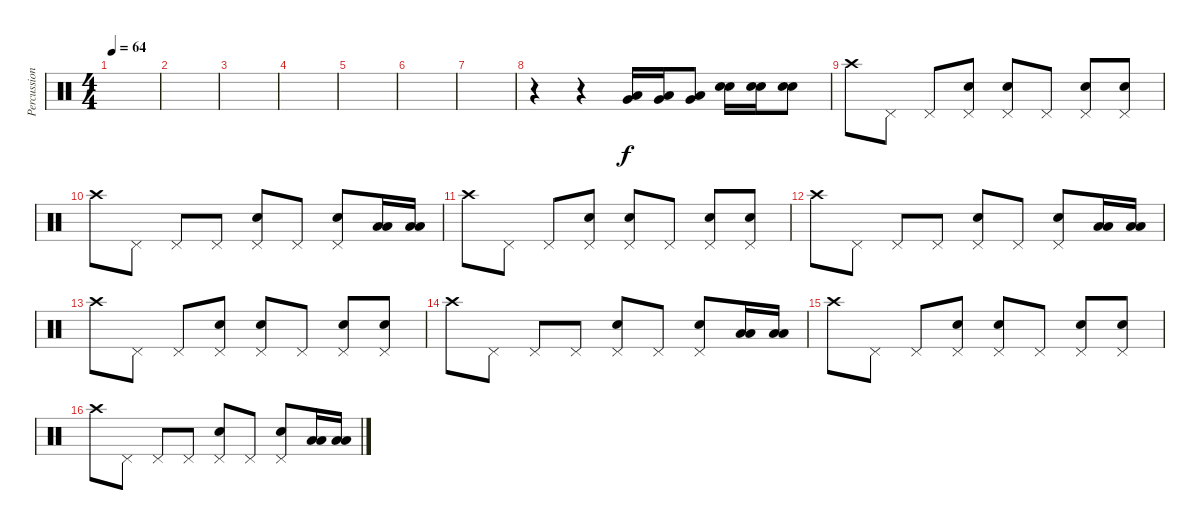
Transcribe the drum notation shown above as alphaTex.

\track ("Percussion" "Percussion") {instrument percussion}
\staff {score}
\articulation defaults
\ts (4 4)
\tempo 64
\clef neutral
\ks c
|
|
|
|
|
|
|
r.4 r.4 ("Low Tom (hit)" "Very Low Tom (hit)").16 ("Very Low Tom (hit)" "Low Tom (hit)").16 ("Very Low Tom (hit)" "Low Tom (hit)").8 ("Electric Snare (hit)" "Snare (hit) 2").16 ("Electric Snare (hit)" "Snare (hit) 2").16 ("Electric Snare (hit)" "Snare (hit) 2").8 |
"Crash high (hit)".8 "Pedal Hi-Hat (hit)".8 "Pedal Hi-Hat (hit)".8 ("Pedal Hi-Hat (hit)" "Electric Snare (hit)").8 ("Pedal Hi-Hat (hit)" "Electric Snare (hit)").8 "Pedal Hi-Hat (hit)".8 ("Pedal Hi-Hat (hit)" "Electric Snare (hit)").8 ("Pedal Hi-Hat (hit)" "Electric Snare (hit)").8 |
"Crash high (hit)".8 "Pedal Hi-Hat (hit)".8 "Pedal Hi-Hat (hit)".8 "Pedal Hi-Hat (hit)".8 ("Pedal Hi-Hat (hit)" "Electric Snare (hit)").8 "Pedal Hi-Hat (hit)".8 ("Pedal Hi-Hat (hit)" "Electric Snare (hit)").8 ("Low Tom (hit)" "Low Tom (hit)").16 ("Low Tom (hit)" "Low Tom (hit)").16 |
"Crash high (hit)".8 "Pedal Hi-Hat (hit)".8 "Pedal Hi-Hat (hit)".8 ("Pedal Hi-Hat (hit)" "Electric Snare (hit)").8 ("Pedal Hi-Hat (hit)" "Electric Snare (hit)").8 "Pedal Hi-Hat (hit)".8 ("Pedal Hi-Hat (hit)" "Electric Snare (hit)").8 ("Pedal Hi-Hat (hit)" "Electric Snare (hit)").8 |
"Crash high (hit)".8 "Pedal Hi-Hat (hit)".8 "Pedal Hi-Hat (hit)".8 "Pedal Hi-Hat (hit)".8 ("Pedal Hi-Hat (hit)" "Electric Snare (hit)").8 "Pedal Hi-Hat (hit)".8 ("Pedal Hi-Hat (hit)" "Electric Snare (hit)").8 ("Low Tom (hit)" "Low Tom (hit)").16 ("Low Tom (hit)" "Low Tom (hit)").16 |
"Crash high (hit)".8 "Pedal Hi-Hat (hit)".8 "Pedal Hi-Hat (hit)".8 ("Pedal Hi-Hat (hit)" "Electric Snare (hit)").8 ("Pedal Hi-Hat (hit)" "Electric Snare (hit)").8 "Pedal Hi-Hat (hit)".8 ("Pedal Hi-Hat (hit)" "Electric Snare (hit)").8 ("Pedal Hi-Hat (hit)" "Electric Snare (hit)").8 |
"Crash high (hit)".8 "Pedal Hi-Hat (hit)".8 "Pedal Hi-Hat (hit)".8 "Pedal Hi-Hat (hit)".8 ("Pedal Hi-Hat (hit)" "Electric Snare (hit)").8 "Pedal Hi-Hat (hit)".8 ("Pedal Hi-Hat (hit)" "Electric Snare (hit)").8 ("Low Tom (hit)" "Low Tom (hit)").16 ("Low Tom (hit)" "Low Tom (hit)").16 |
"Crash high (hit)".8 "Pedal Hi-Hat (hit)".8 "Pedal Hi-Hat (hit)".8 ("Pedal Hi-Hat (hit)" "Electric Snare (hit)").8 ("Pedal Hi-Hat (hit)" "Electric Snare (hit)").8 "Pedal Hi-Hat (hit)".8 ("Pedal Hi-Hat (hit)" "Electric Snare (hit)").8 ("Pedal Hi-Hat (hit)" "Electric Snare (hit)").8 |
"Crash high (hit)".8 "Pedal Hi-Hat (hit)".8 "Pedal Hi-Hat (hit)".8 "Pedal Hi-Hat (hit)".8 ("Pedal Hi-Hat (hit)" "Electric Snare (hit)").8 "Pedal Hi-Hat (hit)".8 ("Pedal Hi-Hat (hit)" "Electric Snare (hit)").8 ("Low Tom (hit)" "Low Tom (hit)").16 ("Low Tom (hit)" "Low Tom (hit)").16
